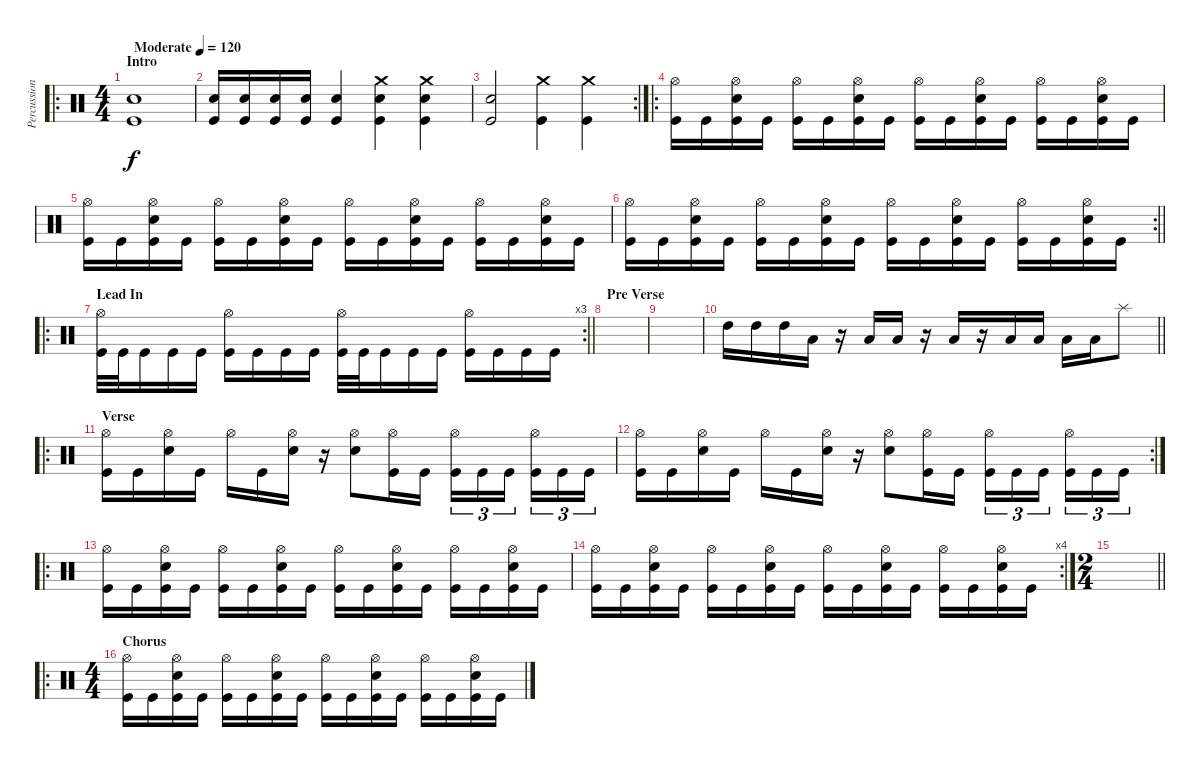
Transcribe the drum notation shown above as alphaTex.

\track ("Percussion" "Percussion") {instrument percussion}
\staff {score}
\articulation defaults
\ro
\ts (4 4)
\section ("" "Intro")
\tempo (120 "Moderate")
\clef neutral
\ks c
("Snare (hit) 2" "Kick (hit)").1{dy f} |
("Snare (hit) 2" "Kick (hit)").16 ("Snare (hit) 2" "Kick (hit)").16 ("Snare (hit) 2" "Kick (hit)").16 ("Snare (hit) 2" "Kick (hit)").16 ("Snare (hit) 2" "Kick (hit)").4 ("Crash medium (hit)" "Snare (hit) 2" "Kick (hit)").4 ("Crash medium (hit)" "Snare (hit) 2" "Kick (hit)").4 |
\rc 2
("Snare (hit) 2" "Kick (hit)").2 ("Crash medium (hit)" "Kick (hit)").4 ("Crash medium (hit)" "Kick (hit)").4 |
\ro
("Hi-Hat (open)" "Kick (hit)").16 "Kick (hit)".16 ("Hi-Hat (open)" "Snare (hit) 2" "Kick (hit)").16 "Kick (hit)".16 ("Hi-Hat (open)" "Kick (hit)").16 "Kick (hit)".16 ("Hi-Hat (open)" "Snare (hit) 2" "Kick (hit)").16 "Kick (hit)".16 ("Hi-Hat (open)" "Kick (hit)").16 "Kick (hit)".16 ("Hi-Hat (open)" "Snare (hit) 2" "Kick (hit)").16 "Kick (hit)".16 ("Hi-Hat (open)" "Kick (hit)").16 "Kick (hit)".16 ("Hi-Hat (open)" "Snare (hit) 2" "Kick (hit)").16 "Kick (hit)".16 |
("Hi-Hat (open)" "Kick (hit)").16 "Kick (hit)".16 ("Hi-Hat (open)" "Snare (hit) 2" "Kick (hit)").16 "Kick (hit)".16 ("Hi-Hat (open)" "Kick (hit)").16 "Kick (hit)".16 ("Hi-Hat (open)" "Snare (hit) 2" "Kick (hit)").16 "Kick (hit)".16 ("Hi-Hat (open)" "Kick (hit)").16 "Kick (hit)".16 ("Hi-Hat (open)" "Snare (hit) 2" "Kick (hit)").16 "Kick (hit)".16 ("Hi-Hat (open)" "Kick (hit)").16 "Kick (hit)".16 ("Hi-Hat (open)" "Snare (hit) 2" "Kick (hit)").16 "Kick (hit)".16 |
\rc 2
\barLineRight lightlight
("Hi-Hat (open)" "Kick (hit)").16 "Kick (hit)".16 ("Hi-Hat (open)" "Snare (hit) 2" "Kick (hit)").16 "Kick (hit)".16 ("Hi-Hat (open)" "Kick (hit)").16 "Kick (hit)".16 ("Hi-Hat (open)" "Snare (hit) 2" "Kick (hit)").16 "Kick (hit)".16 ("Hi-Hat (open)" "Kick (hit)").16 "Kick (hit)".16 ("Hi-Hat (open)" "Snare (hit) 2" "Kick (hit)").16 "Kick (hit)".16 ("Hi-Hat (open)" "Kick (hit)").16 "Kick (hit)".16 ("Hi-Hat (open)" "Snare (hit) 2" "Kick (hit)").16 "Kick (hit)".16 |
\ro
\rc 3
\section ("" "Lead In")
\barLineRight lightlight
("Hi-Hat (open)" "Kick (hit)").32 "Kick (hit)".32 "Kick (hit)".16 "Kick (hit)".16 "Kick (hit)".16 ("Hi-Hat (open)" "Kick (hit)").16 "Kick (hit)".16 "Kick (hit)".16 "Kick (hit)".16 ("Hi-Hat (open)" "Kick (hit)").32 "Kick (hit)".32 "Kick (hit)".16 "Kick (hit)".16 "Kick (hit)".16 ("Hi-Hat (open)" "Kick (hit)").16 "Kick (hit)".16 "Kick (hit)".16 "Kick (hit)".16 |
\section ("" "Pre Verse")
|
|
\barLineRight lightlight "High Tom (hit)".16 "High Tom (hit)".16 "High Tom (hit)".16 "Low Tom (hit)".16
r.16 "Low Tom (hit)".16 "Low Tom (hit)".16 r.16 "Low Floor Tom (hit)".16 r.16 "Low Floor Tom (hit)".16 "Low Floor Tom (hit)".16 "Low Tom (hit)".16 "Low Tom (hit)".16 "Splash (hit)".8 |
\ro
\section ("" "Verse")
("Hi-Hat (open)" "Kick (hit)").16 "Kick (hit)".16 ("Hi-Hat (open)" "Snare (hit) 2").16 "Kick (hit)".16 "Hi-Hat (open)".16 "Kick (hit)".16 ("Hi-Hat (open)" "Snare (hit) 2").16 r.16 ("Hi-Hat (open)" "Snare (hit) 2").8 ("Hi-Hat (open)" "Kick (hit)").16 "Kick (hit)".16 ("Hi-Hat (open)" "Kick (hit)").16{tu (3 2)} "Kick (hit)".16{tu (3 2)} "Kick (hit)".16{tu (3 2) beam splitsecondary} ("Hi-Hat (open)" "Kick (hit)").16{tu (3 2)} "Kick (hit)".16{tu (3 2)} "Kick (hit)".16{tu (3 2)} |
\rc 2
("Hi-Hat (open)" "Kick (hit)").16 "Kick (hit)".16 ("Hi-Hat (open)" "Snare (hit) 2").16 "Kick (hit)".16 "Hi-Hat (open)".16 "Kick (hit)".16 ("Hi-Hat (open)" "Snare (hit) 2").16 r.16 ("Hi-Hat (open)" "Snare (hit) 2").8 ("Hi-Hat (open)" "Kick (hit)").16 "Kick (hit)".16 ("Hi-Hat (open)" "Kick (hit)").16{tu (3 2)} "Kick (hit)".16{tu (3 2)} "Kick (hit)".16{tu (3 2) beam splitsecondary} ("Hi-Hat (open)" "Kick (hit)").16{tu (3 2)} "Kick (hit)".16{tu (3 2)} "Kick (hit)".16{tu (3 2)} |
\ro
("Hi-Hat (open)" "Kick (hit)").16 "Kick (hit)".16 ("Hi-Hat (open)" "Snare (hit) 2" "Kick (hit)").16 "Kick (hit)".16 ("Hi-Hat (open)" "Kick (hit)").16 "Kick (hit)".16 ("Hi-Hat (open)" "Snare (hit) 2" "Kick (hit)").16 "Kick (hit)".16 ("Hi-Hat (open)" "Kick (hit)").16 "Kick (hit)".16 ("Hi-Hat (open)" "Snare (hit) 2" "Kick (hit)").16 "Kick (hit)".16 ("Hi-Hat (open)" "Kick (hit)").16 "Kick (hit)".16 ("Hi-Hat (open)" "Snare (hit) 2" "Kick (hit)").16 "Kick (hit)".16 |
\rc 4
("Hi-Hat (open)" "Kick (hit)").16 "Kick (hit)".16 ("Hi-Hat (open)" "Snare (hit) 2" "Kick (hit)").16 "Kick (hit)".16 ("Hi-Hat (open)" "Kick (hit)").16 "Kick (hit)".16 ("Hi-Hat (open)" "Snare (hit) 2" "Kick (hit)").16 "Kick (hit)".16 ("Hi-Hat (open)" "Kick (hit)").16 "Kick (hit)".16 ("Hi-Hat (open)" "Snare (hit) 2" "Kick (hit)").16 "Kick (hit)".16 ("Hi-Hat (open)" "Kick (hit)").16 "Kick (hit)".16 ("Hi-Hat (open)" "Snare (hit) 2" "Kick (hit)").16 "Kick (hit)".16 |
\ts (2 4)
\barLineRight lightlight
|
\ro
\ts (4 4)
\section ("" "Chorus")
("Hi-Hat (open)" "Kick (hit)").16 "Kick (hit)".16 ("Hi-Hat (open)" "Snare (hit) 2" "Kick (hit)").16 "Kick (hit)".16 ("Hi-Hat (open)" "Kick (hit)").16 "Kick (hit)".16 ("Hi-Hat (open)" "Snare (hit) 2" "Kick (hit)").16 "Kick (hit)".16 ("Hi-Hat (open)" "Kick (hit)").16 "Kick (hit)".16 ("Hi-Hat (open)" "Snare (hit) 2" "Kick (hit)").16 "Kick (hit)".16 ("Hi-Hat (open)" "Kick (hit)").16 "Kick (hit)".16 ("Hi-Hat (open)" "Snare (hit) 2" "Kick (hit)").16 "Kick (hit)".16
